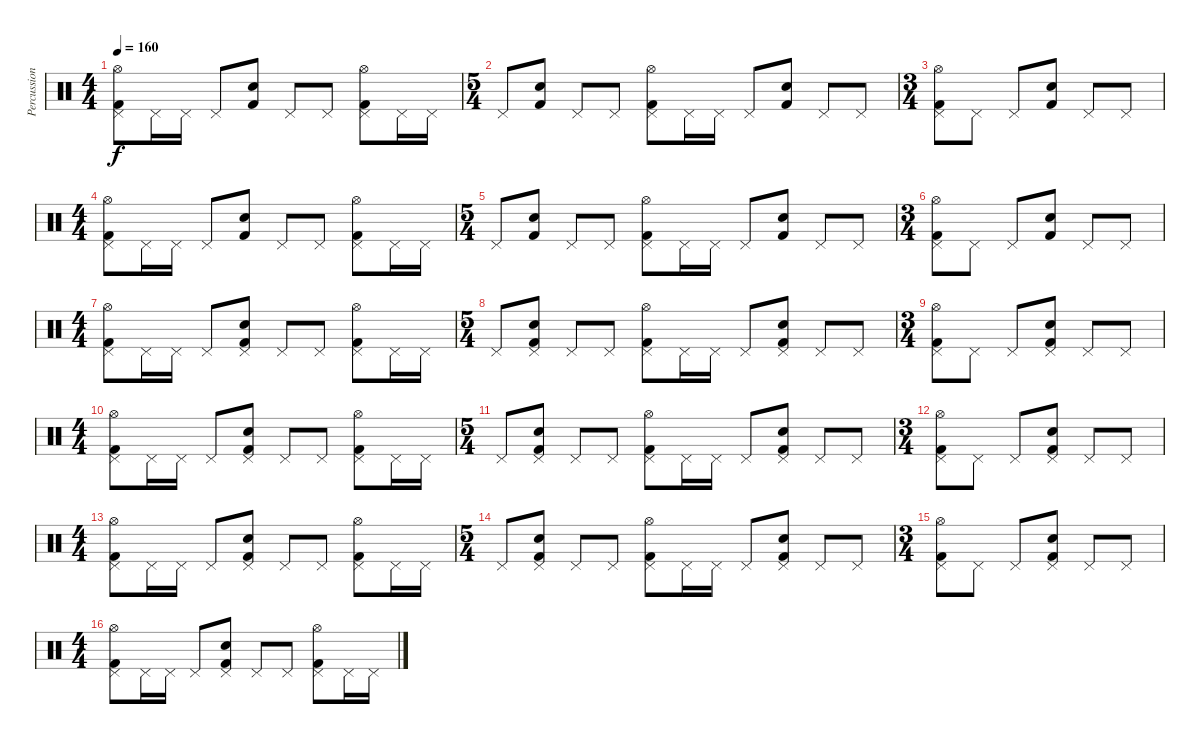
\track ("Percussion" "Percussion") {instrument percussion}
\staff {score}
\articulation defaults
\ts (4 4)
\tempo 160
\clef neutral
\ks c
("Hi-Hat (open)" "Kick (hit) 2" "Pedal Hi-Hat (hit)").8{dy f} "Pedal Hi-Hat (hit)".16 "Pedal Hi-Hat (hit)".16 "Pedal Hi-Hat (hit)".8 ("Snare (hit) 2" "Kick (hit) 2").8 "Pedal Hi-Hat (hit)".8 "Pedal Hi-Hat (hit)".8 ("Hi-Hat (open)" "Kick (hit) 2" "Pedal Hi-Hat (hit)").8 "Pedal Hi-Hat (hit)".16 "Pedal Hi-Hat (hit)".16 |
\ts (5 4)
"Pedal Hi-Hat (hit)".8 ("Snare (hit) 2" "Kick (hit) 2").8 "Pedal Hi-Hat (hit)".8 "Pedal Hi-Hat (hit)".8 ("Hi-Hat (open)" "Kick (hit) 2" "Pedal Hi-Hat (hit)").8 "Pedal Hi-Hat (hit)".16 "Pedal Hi-Hat (hit)".16 "Pedal Hi-Hat (hit)".8 ("Snare (hit) 2" "Kick (hit) 2").8 "Pedal Hi-Hat (hit)".8 "Pedal Hi-Hat (hit)".8 |
\ts (3 4)
("Hi-Hat (open)" "Kick (hit) 2" "Pedal Hi-Hat (hit)").8 "Pedal Hi-Hat (hit)".8 "Pedal Hi-Hat (hit)".8 ("Snare (hit) 2" "Kick (hit) 2").8 "Pedal Hi-Hat (hit)".8 "Pedal Hi-Hat (hit)".8 |
\ts (4 4)
("Hi-Hat (open)" "Kick (hit) 2" "Pedal Hi-Hat (hit)").8 "Pedal Hi-Hat (hit)".16 "Pedal Hi-Hat (hit)".16 "Pedal Hi-Hat (hit)".8 ("Snare (hit) 2" "Kick (hit) 2").8 "Pedal Hi-Hat (hit)".8 "Pedal Hi-Hat (hit)".8 ("Hi-Hat (open)" "Kick (hit) 2" "Pedal Hi-Hat (hit)").8 "Pedal Hi-Hat (hit)".16 "Pedal Hi-Hat (hit)".16 |
\ts (5 4)
"Pedal Hi-Hat (hit)".8 ("Snare (hit) 2" "Kick (hit) 2").8 "Pedal Hi-Hat (hit)".8 "Pedal Hi-Hat (hit)".8 ("Hi-Hat (open)" "Kick (hit) 2" "Pedal Hi-Hat (hit)").8 "Pedal Hi-Hat (hit)".16 "Pedal Hi-Hat (hit)".16 "Pedal Hi-Hat (hit)".8 ("Snare (hit) 2" "Kick (hit) 2").8 "Pedal Hi-Hat (hit)".8 "Pedal Hi-Hat (hit)".8 |
\ts (3 4)
("Hi-Hat (open)" "Kick (hit) 2" "Pedal Hi-Hat (hit)").8 "Pedal Hi-Hat (hit)".8 "Pedal Hi-Hat (hit)".8 ("Snare (hit) 2" "Kick (hit) 2").8 "Pedal Hi-Hat (hit)".8 "Pedal Hi-Hat (hit)".8 |
\ts (4 4)
("Hi-Hat (open)" "Kick (hit) 2" "Pedal Hi-Hat (hit)").8 "Pedal Hi-Hat (hit)".16 "Pedal Hi-Hat (hit)".16 "Pedal Hi-Hat (hit)".8 ("Snare (hit) 2" "Kick (hit) 2" "Pedal Hi-Hat (hit)").8 "Pedal Hi-Hat (hit)".8 "Pedal Hi-Hat (hit)".8 ("Hi-Hat (open)" "Kick (hit) 2" "Pedal Hi-Hat (hit)").8 "Pedal Hi-Hat (hit)".16 "Pedal Hi-Hat (hit)".16 |
\ts (5 4)
"Pedal Hi-Hat (hit)".8 ("Snare (hit) 2" "Kick (hit) 2" "Pedal Hi-Hat (hit)").8 "Pedal Hi-Hat (hit)".8 "Pedal Hi-Hat (hit)".8 ("Hi-Hat (open)" "Kick (hit) 2" "Pedal Hi-Hat (hit)").8 "Pedal Hi-Hat (hit)".16 "Pedal Hi-Hat (hit)".16 "Pedal Hi-Hat (hit)".8 ("Snare (hit) 2" "Kick (hit) 2" "Pedal Hi-Hat (hit)").8 "Pedal Hi-Hat (hit)".8 "Pedal Hi-Hat (hit)".8 |
\ts (3 4)
("Hi-Hat (open)" "Kick (hit) 2" "Pedal Hi-Hat (hit)").8 "Pedal Hi-Hat (hit)".8 "Pedal Hi-Hat (hit)".8 ("Snare (hit) 2" "Kick (hit) 2" "Pedal Hi-Hat (hit)").8 "Pedal Hi-Hat (hit)".8 "Pedal Hi-Hat (hit)".8 |
\ts (4 4)
("Hi-Hat (open)" "Kick (hit) 2" "Pedal Hi-Hat (hit)").8 "Pedal Hi-Hat (hit)".16 "Pedal Hi-Hat (hit)".16 "Pedal Hi-Hat (hit)".8 ("Snare (hit) 2" "Kick (hit) 2" "Pedal Hi-Hat (hit)").8 "Pedal Hi-Hat (hit)".8 "Pedal Hi-Hat (hit)".8 ("Hi-Hat (open)" "Kick (hit) 2" "Pedal Hi-Hat (hit)").8 "Pedal Hi-Hat (hit)".16 "Pedal Hi-Hat (hit)".16 |
\ts (5 4)
"Pedal Hi-Hat (hit)".8 ("Snare (hit) 2" "Kick (hit) 2" "Pedal Hi-Hat (hit)").8 "Pedal Hi-Hat (hit)".8 "Pedal Hi-Hat (hit)".8 ("Hi-Hat (open)" "Kick (hit) 2" "Pedal Hi-Hat (hit)").8 "Pedal Hi-Hat (hit)".16 "Pedal Hi-Hat (hit)".16 "Pedal Hi-Hat (hit)".8 ("Snare (hit) 2" "Kick (hit) 2" "Pedal Hi-Hat (hit)").8 "Pedal Hi-Hat (hit)".8 "Pedal Hi-Hat (hit)".8 |
\ts (3 4)
("Hi-Hat (open)" "Kick (hit) 2" "Pedal Hi-Hat (hit)").8 "Pedal Hi-Hat (hit)".8 "Pedal Hi-Hat (hit)".8 ("Snare (hit) 2" "Kick (hit) 2" "Pedal Hi-Hat (hit)").8 "Pedal Hi-Hat (hit)".8 "Pedal Hi-Hat (hit)".8 |
\ts (4 4)
("Hi-Hat (open)" "Kick (hit) 2" "Pedal Hi-Hat (hit)").8 "Pedal Hi-Hat (hit)".16 "Pedal Hi-Hat (hit)".16 "Pedal Hi-Hat (hit)".8 ("Snare (hit) 2" "Kick (hit) 2" "Pedal Hi-Hat (hit)").8 "Pedal Hi-Hat (hit)".8 "Pedal Hi-Hat (hit)".8 ("Hi-Hat (open)" "Kick (hit) 2" "Pedal Hi-Hat (hit)").8 "Pedal Hi-Hat (hit)".16 "Pedal Hi-Hat (hit)".16 |
\ts (5 4)
"Pedal Hi-Hat (hit)".8 ("Snare (hit) 2" "Kick (hit) 2" "Pedal Hi-Hat (hit)").8 "Pedal Hi-Hat (hit)".8 "Pedal Hi-Hat (hit)".8 ("Hi-Hat (open)" "Kick (hit) 2" "Pedal Hi-Hat (hit)").8 "Pedal Hi-Hat (hit)".16 "Pedal Hi-Hat (hit)".16 "Pedal Hi-Hat (hit)".8 ("Snare (hit) 2" "Kick (hit) 2" "Pedal Hi-Hat (hit)").8 "Pedal Hi-Hat (hit)".8 "Pedal Hi-Hat (hit)".8 |
\ts (3 4)
("Hi-Hat (open)" "Kick (hit) 2" "Pedal Hi-Hat (hit)").8 "Pedal Hi-Hat (hit)".8 "Pedal Hi-Hat (hit)".8 ("Snare (hit) 2" "Kick (hit) 2" "Pedal Hi-Hat (hit)").8 "Pedal Hi-Hat (hit)".8 "Pedal Hi-Hat (hit)".8 |
\ts (4 4)
("Hi-Hat (open)" "Kick (hit) 2" "Pedal Hi-Hat (hit)").8 "Pedal Hi-Hat (hit)".16 "Pedal Hi-Hat (hit)".16 "Pedal Hi-Hat (hit)".8 ("Snare (hit) 2" "Kick (hit) 2" "Pedal Hi-Hat (hit)").8 "Pedal Hi-Hat (hit)".8 "Pedal Hi-Hat (hit)".8 ("Hi-Hat (open)" "Kick (hit) 2" "Pedal Hi-Hat (hit)").8 "Pedal Hi-Hat (hit)".16 "Pedal Hi-Hat (hit)".16
